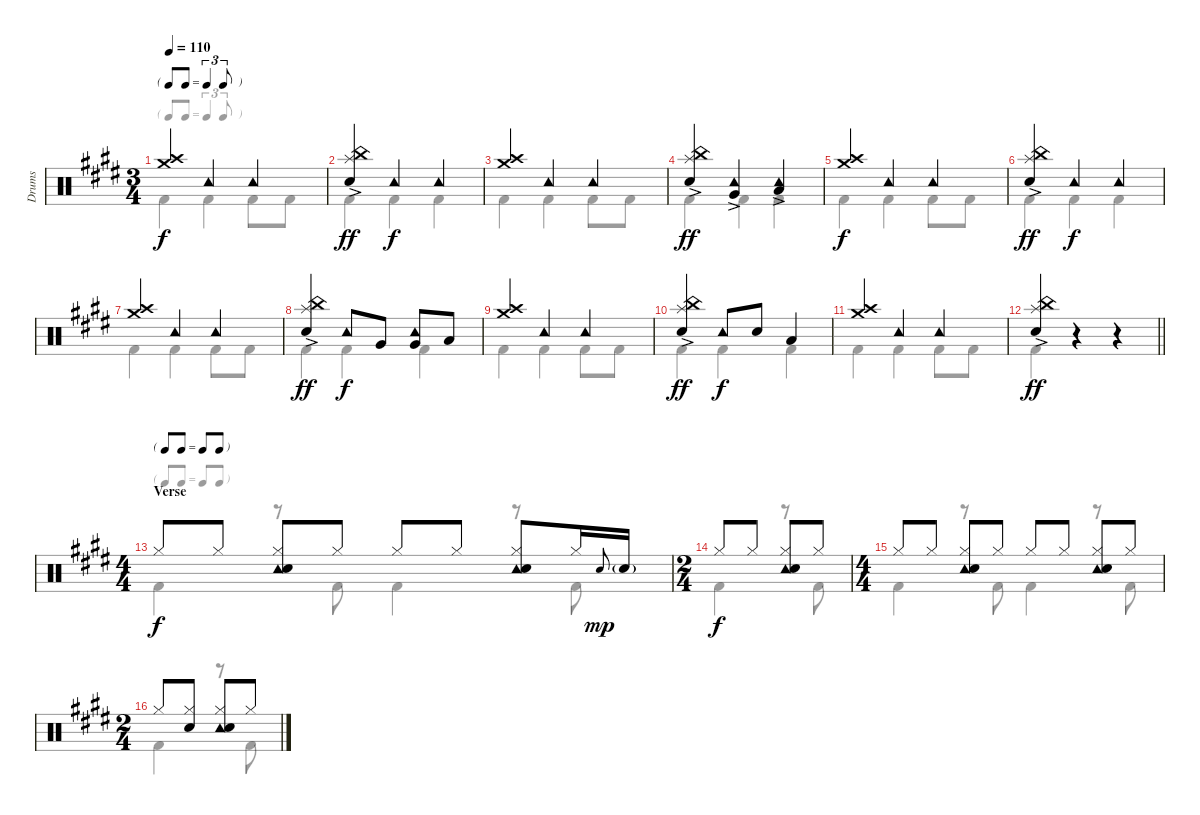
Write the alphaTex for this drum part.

\track ("Drums" "Drums") {instrument percussion}
\staff {score}
\articulation defaults
\voice
\ts (3 4)
\tf triplet8th
\tempo 110
\clef neutral
\ks e
("Crash medium (hit)" "Crash high (hit)").4{dy f} "Tambourine (hit)".4 "Tambourine (hit)".4 |
("Splash (hit)" "China (hit)" "Snare (hit) 2"{ac}).4{dy ff} "Tambourine (hit)".4{dy f} "Tambourine (hit)".4 |
("Crash medium (hit)" "Crash high (hit)").4 "Tambourine (hit)".4 "Tambourine (hit)".4 |
("Splash (hit)" "China (hit)" "Snare (hit) 2"{ac}).4{dy ff} ("Tambourine (hit)" "Very Low Tom (hit)"{ac}).4 ("Tambourine (hit)" "Low Floor Tom (hit)"{ac}).4 |
("Crash medium (hit)" "Crash high (hit)").4{dy f} "Tambourine (hit)".4 "Tambourine (hit)".4 |
("Splash (hit)" "China (hit)" "Snare (hit) 2"{ac}).4{dy ff} "Tambourine (hit)".4{dy f} "Tambourine (hit)".4 |
("Crash medium (hit)" "Crash high (hit)").4 "Tambourine (hit)".4 "Tambourine (hit)".4 |
("Splash (hit)" "China (hit)" "Snare (hit) 2"{ac}).4{dy ff} "Tambourine (hit)".8{dy f} "Very Low Tom (hit)".8 ("Tambourine (hit)" "Very Low Tom (hit)").8 "Low Floor Tom (hit)".8 |
("Crash medium (hit)" "Crash high (hit)").4 "Tambourine (hit)".4 "Tambourine (hit)".4 |
("Splash (hit)" "China (hit)" "Snare (hit) 2"{ac}).4{dy ff} "Tambourine (hit)".8{dy f} "Snare (hit) 2".8 "Low Tom (hit)".4 |
("Crash medium (hit)" "Crash high (hit)").4 "Tambourine (hit)".4 "Tambourine (hit)".4 |
\barLineRight lightlight
("Splash (hit)" "China (hit)" "Snare (hit) 2"{ac}).4{dy ff} r.4 r.4 |
\ts (4 4)
\tf none
\section ("" "Verse")
"Hi-Hat (closed)".8{dy f} "Hi-Hat (closed)".8 ("Tambourine (hit)" "Hi-Hat (closed)" "Snare (hit) 2").8 "Hi-Hat (closed)".8 "Hi-Hat (closed)".8 "Hi-Hat (closed)".8 ("Tambourine (hit)" "Hi-Hat (closed)" "Snare (hit) 2").8 "Hi-Hat (closed)".16 "Snare (hit) 2".8{gr onbeat dy mp} "Snare (hit) 2"{g}.16 |
\ts (2 4)
"Hi-Hat (closed)".8{dy f} "Hi-Hat (closed)".8 ("Tambourine (hit)" "Hi-Hat (closed)" "Snare (hit) 2").8 "Hi-Hat (closed)".8 |
\ts (4 4)
"Hi-Hat (closed)".8 "Hi-Hat (closed)".8 ("Tambourine (hit)" "Hi-Hat (closed)" "Snare (hit) 2").8 "Hi-Hat (closed)".8 "Hi-Hat (closed)".8 "Hi-Hat (closed)".8 ("Tambourine (hit)" "Hi-Hat (closed)" "Snare (hit) 2").8 "Hi-Hat (closed)".8 |
\ts (2 4)
"Hi-Hat (closed)".8 ("Hi-Hat (closed)" "Snare (hit) 2").8 ("Tambourine (hit)" "Hi-Hat (closed)" "Snare (hit) 2").8 "Hi-Hat (closed)".8
\voice
\clef neutral
\ottava regular
\simile none
\ks e "Kick (hit) 2".4{dy f} "Kick (hit) 2".4 "Kick (hit) 2".8 "Kick (hit) 2".8
|
"Kick (hit) 2".4 "Kick (hit) 2".4 "Kick (hit) 2".4 |
"Kick (hit) 2".4 "Kick (hit) 2".4 "Kick (hit) 2".8 "Kick (hit) 2".8 |
"Kick (hit) 2".4 "Kick (hit) 2".4 "Kick (hit) 2".4 |
"Kick (hit) 2".4 "Kick (hit) 2".4 "Kick (hit) 2".8 "Kick (hit) 2".8 |
"Kick (hit) 2".4 "Kick (hit) 2".4 "Kick (hit) 2".4 |
"Kick (hit) 2".4 "Kick (hit) 2".4 "Kick (hit) 2".8 "Kick (hit) 2".8 |
"Kick (hit) 2".4 "Kick (hit) 2".4 "Kick (hit) 2".4 |
"Kick (hit) 2".4 "Kick (hit) 2".4 "Kick (hit) 2".8 "Kick (hit) 2".8 |
"Kick (hit) 2".4 "Kick (hit) 2".4 "Kick (hit) 2".4 |
"Kick (hit) 2".4 "Kick (hit) 2".4 "Kick (hit) 2".8 "Kick (hit) 2".8 |
\barLineRight lightlight "Kick (hit) 2".4
r.4 r.4 |
"Kick (hit) 2".4 r.8 "Kick (hit) 2".8 "Kick (hit) 2".4 r.8 "Kick (hit) 2".8 |
"Kick (hit) 2".4 r.8 "Kick (hit) 2".8 |
"Kick (hit) 2".4 r.8 "Kick (hit) 2".8 "Kick (hit) 2".4 r.8 "Kick (hit) 2".8 |
"Kick (hit) 2".4 r.8 "Kick (hit) 2".8
